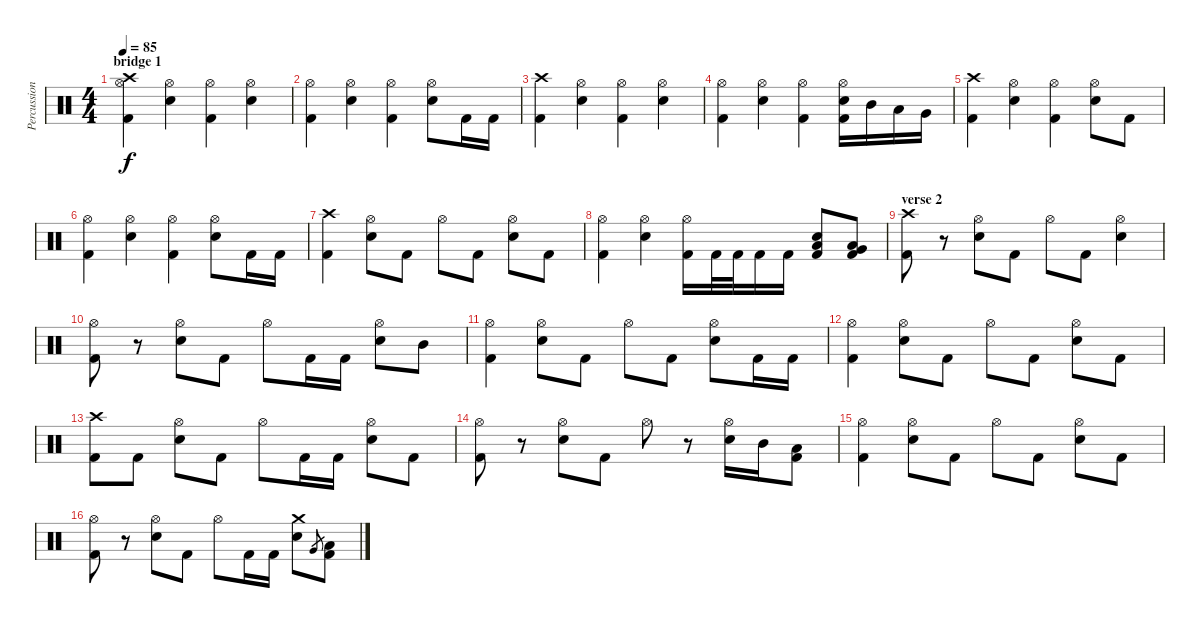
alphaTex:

\track ("Percussion" "Percussion") {instrument percussion}
\staff {score}
\articulation defaults
\ts (4 4)
\section ("" "bridge 1")
\tempo 85
\clef neutral
\ks c
("Crash high (hit)" "Hi-Hat (open)" "Kick (hit) 2").4{dy f} ("Hi-Hat (open)" "Snare (hit) 2").4 ("Hi-Hat (open)" "Kick (hit) 2").4 ("Hi-Hat (open)" "Snare (hit) 2").4 |
("Hi-Hat (open)" "Kick (hit) 2").4 ("Hi-Hat (open)" "Snare (hit) 2").4 ("Hi-Hat (open)" "Kick (hit) 2").4 ("Hi-Hat (open)" "Snare (hit) 2").8 "Kick (hit) 2".16 "Kick (hit) 2".16 |
("Crash high (hit)" "Kick (hit) 2").4 ("Hi-Hat (open)" "Snare (hit) 2").4 ("Hi-Hat (open)" "Kick (hit) 2").4 ("Hi-Hat (open)" "Snare (hit) 2").4 |
("Hi-Hat (open)" "Kick (hit) 2").4 ("Hi-Hat (open)" "Snare (hit) 2").4 ("Hi-Hat (open)" "Kick (hit) 2").4 ("Hi-Hat (open)" "Snare (hit) 2" "Kick (hit) 2").16 "Mid Tom (hit)".16 "Low Tom (hit)".16 "Very Low Tom (hit)".16 |
("Crash high (hit)" "Kick (hit) 2").4 ("Hi-Hat (open)" "Snare (hit) 2").4 ("Hi-Hat (open)" "Kick (hit) 2").4 ("Hi-Hat (open)" "Snare (hit) 2").8 "Kick (hit) 2".8 |
("Hi-Hat (open)" "Kick (hit) 2").4 ("Hi-Hat (open)" "Snare (hit) 2").4 ("Hi-Hat (open)" "Kick (hit) 2").4 ("Hi-Hat (open)" "Snare (hit) 2").8 "Kick (hit) 2".16 "Kick (hit) 2".16 |
("Crash high (hit)" "Kick (hit) 2").4 ("Hi-Hat (open)" "Snare (hit) 2").8 "Kick (hit) 2".8 "Hi-Hat (open)".8 "Kick (hit) 2".8 ("Hi-Hat (open)" "Snare (hit) 2").8 "Kick (hit) 2".8 |
("Hi-Hat (open)" "Kick (hit) 2").4 ("Hi-Hat (open)" "Snare (hit) 2").4 ("Hi-Hat (open)" "Kick (hit) 2").16 "Kick (hit) 2".32 "Kick (hit) 2".32 "Kick (hit) 2".16 "Kick (hit) 2".16 ("Low Tom (hit)" "Snare (hit) 2" "Kick (hit) 2").8 ("Low Tom (hit)" "Very Low Tom (hit)" "Kick (hit) 2").8 |
\section ("" "verse 2")
("Crash high (hit)" "Kick (hit) 2").8 r.8 ("Hi-Hat (open)" "Snare (hit) 2").8 "Kick (hit) 2".8 "Hi-Hat (open)".8 "Kick (hit) 2".8 ("Hi-Hat (open)" "Snare (hit) 2").4 |
("Hi-Hat (open)" "Kick (hit) 2").8 r.8 ("Hi-Hat (open)" "Snare (hit) 2").8 "Kick (hit) 2".8 "Hi-Hat (open)".8 "Kick (hit) 2".16 "Kick (hit) 2".16 ("Hi-Hat (open)" "Snare (hit) 2").8 "Mid Tom (hit)".8 |
("Hi-Hat (open)" "Kick (hit) 2").4 ("Hi-Hat (open)" "Snare (hit) 2").8 "Kick (hit) 2".8 "Hi-Hat (open)".8 "Kick (hit) 2".8 ("Hi-Hat (open)" "Snare (hit) 2").8 "Kick (hit) 2".16 "Kick (hit) 2".16 |
("Hi-Hat (open)" "Kick (hit) 2").4 ("Hi-Hat (open)" "Snare (hit) 2").8 "Kick (hit) 2".8 "Hi-Hat (open)".8 "Kick (hit) 2".8 ("Hi-Hat (open)" "Snare (hit) 2").8 "Kick (hit) 2".8 |
("Crash high (hit)" "Kick (hit) 2").8 "Kick (hit) 2".8 ("Hi-Hat (open)" "Snare (hit) 2").8 "Kick (hit) 2".8 "Hi-Hat (open)".8 "Kick (hit) 2".16 "Kick (hit) 2".16 ("Hi-Hat (open)" "Snare (hit) 2").8 "Kick (hit) 2".8 |
("Hi-Hat (open)" "Kick (hit) 2").8 r.8 ("Hi-Hat (open)" "Snare (hit) 2").8 "Kick (hit) 2".8 "Hi-Hat (open)".8 r.8 ("Hi-Hat (open)" "Snare (hit) 2").16 "Mid Tom (hit)".16 ("Low Tom (hit)" "Kick (hit) 2").8 |
("Hi-Hat (open)" "Kick (hit) 2").4 ("Hi-Hat (open)" "Snare (hit) 2").8 "Kick (hit) 2".8 "Hi-Hat (open)".8 "Kick (hit) 2".8 ("Hi-Hat (open)" "Snare (hit) 2").8 "Kick (hit) 2".8 |
("Hi-Hat (open)" "Kick (hit) 2").8 r.8 ("Hi-Hat (open)" "Snare (hit) 2").8 "Kick (hit) 2".8 "Hi-Hat (open)".8 "Kick (hit) 2".16 "Kick (hit) 2".16 ("Crash medium (hit)" "Snare (hit) 2").8 "Very Low Tom (hit)".8{gr} ("Low Tom (hit)" "Kick (hit) 2").8
